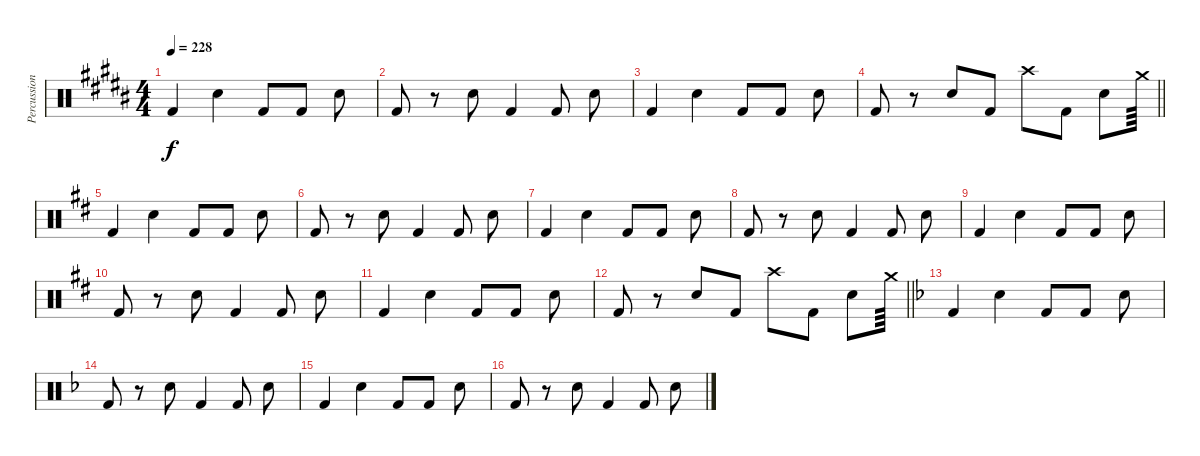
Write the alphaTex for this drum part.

\track ("Percussion" "Percussion") {instrument percussion}
\staff {score}
\articulation defaults
\ts (4 4)
\tempo 228
\clef neutral
\ks g#minor "Kick (hit) 2".4{dy f} "Snare (hit) 2".4 "Kick (hit) 2".8 "Kick (hit) 2".8 "Snare (hit) 2".8
|
"Kick (hit) 2".8 r.8 "Snare (hit) 2".8 "Kick (hit) 2".4 "Kick (hit) 2".8 "Snare (hit) 2".8 |
\ks b "Kick (hit) 2".4 "Snare (hit) 2".4 "Kick (hit) 2".8 "Kick (hit) 2".8 "Snare (hit) 2".8
|
\barLineRight lightlight
\ks g#minor "Kick (hit) 2".8
r.8 "Snare (hit) 2".8 "Kick (hit) 2".8 "Crash high (hit)".8 "Kick (hit) 2".8 "Snare (hit) 2".8 "Crash medium (hit)".64 |
\ks d "Kick (hit) 2".4 "Snare (hit) 2".4 "Kick (hit) 2".8 "Kick (hit) 2".8 "Snare (hit) 2".8
|
"Kick (hit) 2".8 r.8 "Snare (hit) 2".8 "Kick (hit) 2".4 "Kick (hit) 2".8 "Snare (hit) 2".8 |
"Kick (hit) 2".4 "Snare (hit) 2".4 "Kick (hit) 2".8 "Kick (hit) 2".8 "Snare (hit) 2".8 |
"Kick (hit) 2".8 r.8 "Snare (hit) 2".8 "Kick (hit) 2".4 "Kick (hit) 2".8 "Snare (hit) 2".8 |
"Kick (hit) 2".4 "Snare (hit) 2".4 "Kick (hit) 2".8 "Kick (hit) 2".8 "Snare (hit) 2".8 |
"Kick (hit) 2".8 r.8 "Snare (hit) 2".8 "Kick (hit) 2".4 "Kick (hit) 2".8 "Snare (hit) 2".8 |
"Kick (hit) 2".4 "Snare (hit) 2".4 "Kick (hit) 2".8 "Kick (hit) 2".8 "Snare (hit) 2".8 |
\barLineRight lightlight "Kick (hit) 2".8
r.8 "Snare (hit) 2".8 "Kick (hit) 2".8 "Crash high (hit)".8 "Kick (hit) 2".8 "Snare (hit) 2".8 "Crash medium (hit)".64 |
\ks f "Kick (hit) 2".4 "Snare (hit) 2".4 "Kick (hit) 2".8 "Kick (hit) 2".8 "Snare (hit) 2".8
|
"Kick (hit) 2".8 r.8 "Snare (hit) 2".8 "Kick (hit) 2".4 "Kick (hit) 2".8 "Snare (hit) 2".8 |
"Kick (hit) 2".4 "Snare (hit) 2".4 "Kick (hit) 2".8 "Kick (hit) 2".8 "Snare (hit) 2".8 |
"Kick (hit) 2".8 r.8 "Snare (hit) 2".8 "Kick (hit) 2".4 "Kick (hit) 2".8 "Snare (hit) 2".8
